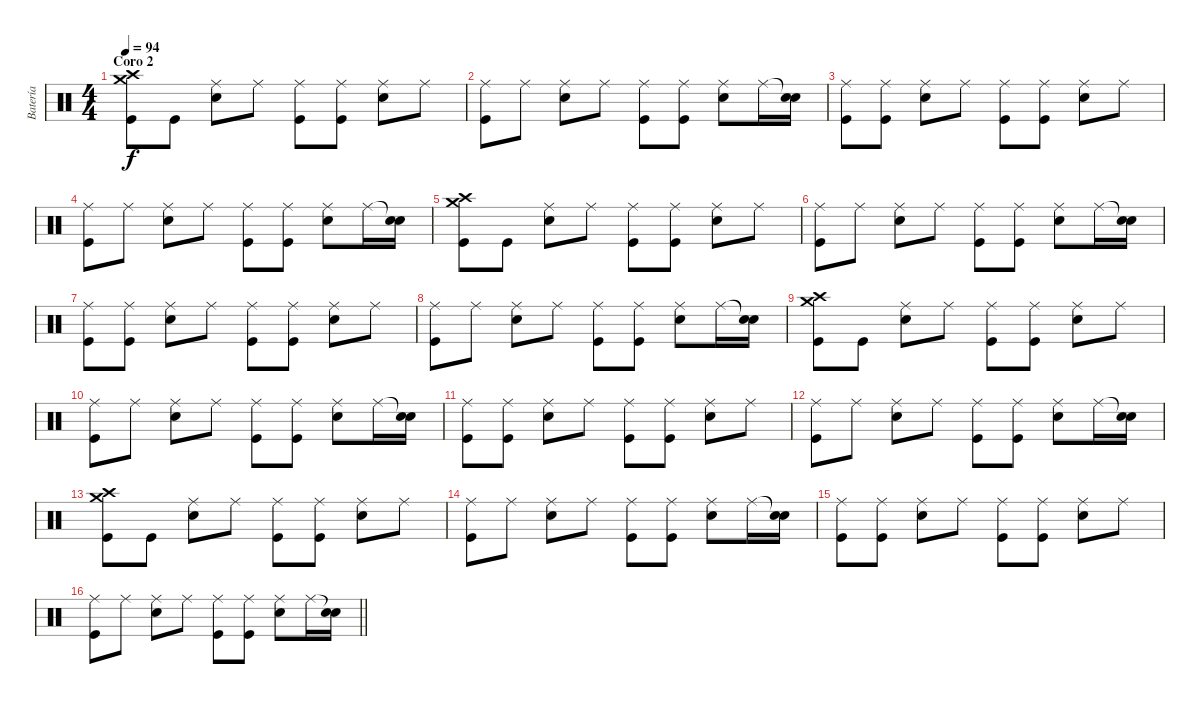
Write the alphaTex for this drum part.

\track ("Batería" "Batería") {instrument percussion}
\staff {score}
\articulation defaults
\ts (4 4)
\section ("" "Coro 2")
\tempo 94
\clef neutral
\ks c
("Crash medium (hit)" "Crash high (hit)" "Kick (hit)").8{dy f} "Kick (hit)".8 ("Ride (middle)" "Snare (hit) 2").8 "Ride (middle)".8 ("Ride (middle)" "Kick (hit)").8 ("Ride (middle)" "Kick (hit)").8 ("Ride (middle)" "Snare (hit) 2").8 "Ride (middle)".8 |
("Ride (middle)" "Kick (hit)").8 "Ride (middle)".8 ("Ride (middle)" "Snare (hit) 2").8 "Ride (middle)".8 ("Ride (middle)" "Kick (hit)").8 ("Ride (middle)" "Kick (hit)").8 ("Ride (middle)" "Snare (hit) 2").8 "Ride (middle)".16 ("Snare (hit)"{t} "Snare (hit) 2").16 |
("Ride (middle)" "Kick (hit)").8 ("Ride (middle)" "Kick (hit)").8 ("Ride (middle)" "Snare (hit) 2").8 "Ride (middle)".8 ("Ride (middle)" "Kick (hit)").8 ("Ride (middle)" "Kick (hit)").8 ("Ride (middle)" "Snare (hit) 2").8 "Ride (middle)".8 |
("Ride (middle)" "Kick (hit)").8 "Ride (middle)".8 ("Ride (middle)" "Snare (hit) 2").8 "Ride (middle)".8 ("Ride (middle)" "Kick (hit)").8 ("Ride (middle)" "Kick (hit)").8 ("Ride (middle)" "Snare (hit) 2").8 "Ride (middle)".16 ("Snare (hit)"{t} "Snare (hit) 2").16 |
("Crash medium (hit)" "Crash high (hit)" "Kick (hit)").8 "Kick (hit)".8 ("Ride (middle)" "Snare (hit) 2").8 "Ride (middle)".8 ("Ride (middle)" "Kick (hit)").8 ("Ride (middle)" "Kick (hit)").8 ("Ride (middle)" "Snare (hit) 2").8 "Ride (middle)".8 |
("Ride (middle)" "Kick (hit)").8 "Ride (middle)".8 ("Ride (middle)" "Snare (hit) 2").8 "Ride (middle)".8 ("Ride (middle)" "Kick (hit)").8 ("Ride (middle)" "Kick (hit)").8 ("Ride (middle)" "Snare (hit) 2").8 "Ride (middle)".16 ("Snare (hit)"{t} "Snare (hit) 2").16 |
("Ride (middle)" "Kick (hit)").8 ("Ride (middle)" "Kick (hit)").8 ("Ride (middle)" "Snare (hit) 2").8 "Ride (middle)".8 ("Ride (middle)" "Kick (hit)").8 ("Ride (middle)" "Kick (hit)").8 ("Ride (middle)" "Snare (hit) 2").8 "Ride (middle)".8 |
("Ride (middle)" "Kick (hit)").8 "Ride (middle)".8 ("Ride (middle)" "Snare (hit) 2").8 "Ride (middle)".8 ("Ride (middle)" "Kick (hit)").8 ("Ride (middle)" "Kick (hit)").8 ("Ride (middle)" "Snare (hit) 2").8 "Ride (middle)".16 ("Snare (hit)"{t} "Snare (hit) 2").16 |
("Crash medium (hit)" "Crash high (hit)" "Kick (hit)").8 "Kick (hit)".8 ("Ride (middle)" "Snare (hit) 2").8 "Ride (middle)".8 ("Ride (middle)" "Kick (hit)").8 ("Ride (middle)" "Kick (hit)").8 ("Ride (middle)" "Snare (hit) 2").8 "Ride (middle)".8 |
("Ride (middle)" "Kick (hit)").8 "Ride (middle)".8 ("Ride (middle)" "Snare (hit) 2").8 "Ride (middle)".8 ("Ride (middle)" "Kick (hit)").8 ("Ride (middle)" "Kick (hit)").8 ("Ride (middle)" "Snare (hit) 2").8 "Ride (middle)".16 ("Snare (hit)"{t} "Snare (hit) 2").16 |
("Ride (middle)" "Kick (hit)").8 ("Ride (middle)" "Kick (hit)").8 ("Ride (middle)" "Snare (hit) 2").8 "Ride (middle)".8 ("Ride (middle)" "Kick (hit)").8 ("Ride (middle)" "Kick (hit)").8 ("Ride (middle)" "Snare (hit) 2").8 "Ride (middle)".8 |
("Ride (middle)" "Kick (hit)").8 "Ride (middle)".8 ("Ride (middle)" "Snare (hit) 2").8 "Ride (middle)".8 ("Ride (middle)" "Kick (hit)").8 ("Ride (middle)" "Kick (hit)").8 ("Ride (middle)" "Snare (hit) 2").8 "Ride (middle)".16 ("Snare (hit)"{t} "Snare (hit) 2").16 |
("Crash medium (hit)" "Crash high (hit)" "Kick (hit)").8 "Kick (hit)".8 ("Ride (middle)" "Snare (hit) 2").8 "Ride (middle)".8 ("Ride (middle)" "Kick (hit)").8 ("Ride (middle)" "Kick (hit)").8 ("Ride (middle)" "Snare (hit) 2").8 "Ride (middle)".8 |
("Ride (middle)" "Kick (hit)").8 "Ride (middle)".8 ("Ride (middle)" "Snare (hit) 2").8 "Ride (middle)".8 ("Ride (middle)" "Kick (hit)").8 ("Ride (middle)" "Kick (hit)").8 ("Ride (middle)" "Snare (hit) 2").8 "Ride (middle)".16 ("Snare (hit)"{t} "Snare (hit) 2").16 |
("Ride (middle)" "Kick (hit)").8 ("Ride (middle)" "Kick (hit)").8 ("Ride (middle)" "Snare (hit) 2").8 "Ride (middle)".8 ("Ride (middle)" "Kick (hit)").8 ("Ride (middle)" "Kick (hit)").8 ("Ride (middle)" "Snare (hit) 2").8 "Ride (middle)".8 |
\barLineRight lightlight
("Ride (middle)" "Kick (hit)").8 "Ride (middle)".8 ("Ride (middle)" "Snare (hit) 2").8 "Ride (middle)".8 ("Ride (middle)" "Kick (hit)").8 ("Ride (middle)" "Kick (hit)").8 ("Ride (middle)" "Snare (hit) 2").8 "Ride (middle)".16 ("Snare (hit)"{t} "Snare (hit) 2").16
